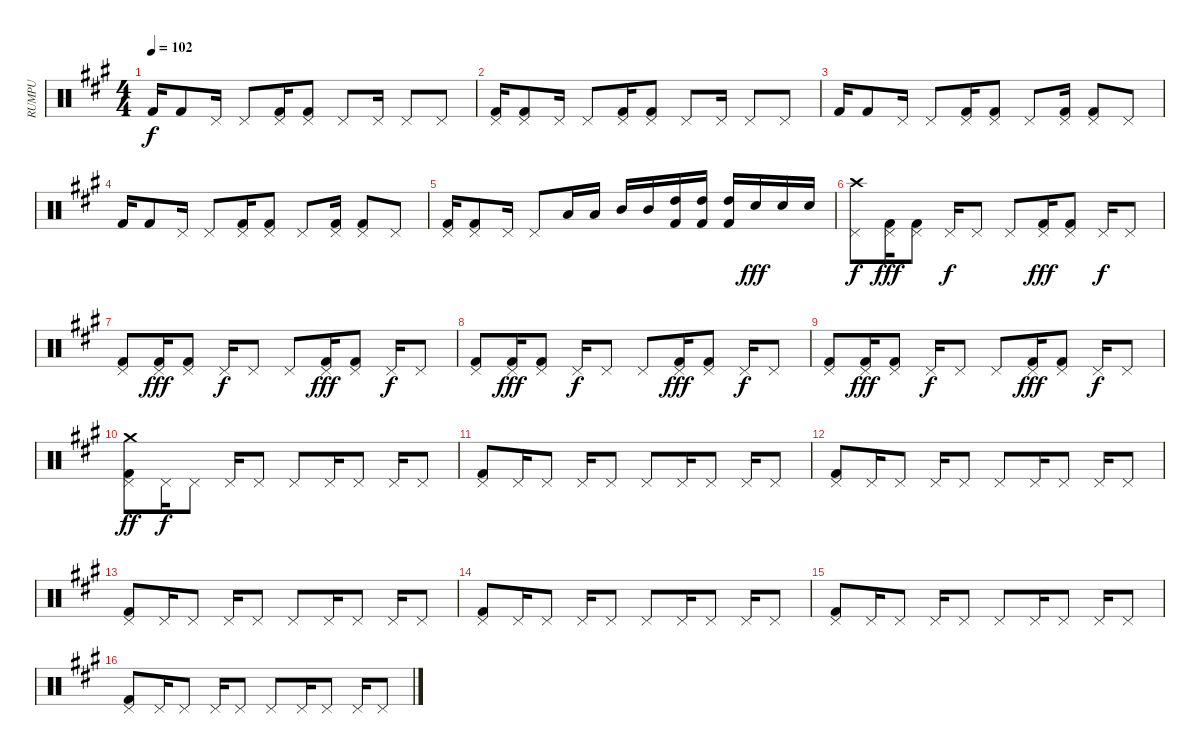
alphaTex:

\track ("RUMPU" "RUMPU") {instrument percussion}
\staff {score}
\articulation defaults
\ts (4 4)
\tempo 102
\clef neutral
\ks a "Kick (hit) 2".16{dy f} "Kick (hit) 2".8 "Pedal Hi-Hat (hit)".16 "Pedal Hi-Hat (hit)".8
("Kick (hit) 2" "Pedal Hi-Hat (hit)").16 ("Kick (hit) 2" "Pedal Hi-Hat (hit)").8 "Pedal Hi-Hat (hit)".8 "Pedal Hi-Hat (hit)".16 "Pedal Hi-Hat (hit)".8 "Pedal Hi-Hat (hit)".8 |
("Kick (hit) 2" "Pedal Hi-Hat (hit)").16 ("Kick (hit) 2" "Pedal Hi-Hat (hit)").8 "Pedal Hi-Hat (hit)".16 "Pedal Hi-Hat (hit)".8 ("Kick (hit) 2" "Pedal Hi-Hat (hit)").16 ("Kick (hit) 2" "Pedal Hi-Hat (hit)").8 "Pedal Hi-Hat (hit)".8 "Pedal Hi-Hat (hit)".16 "Pedal Hi-Hat (hit)".8 "Pedal Hi-Hat (hit)".8 |
"Kick (hit) 2".16 "Kick (hit) 2".8 "Pedal Hi-Hat (hit)".16 "Pedal Hi-Hat (hit)".8 ("Kick (hit) 2" "Pedal Hi-Hat (hit)").16 ("Kick (hit) 2" "Pedal Hi-Hat (hit)").8 "Pedal Hi-Hat (hit)".8 ("Kick (hit) 2" "Pedal Hi-Hat (hit)").16 ("Kick (hit) 2" "Pedal Hi-Hat (hit)").8 "Pedal Hi-Hat (hit)".8 |
"Kick (hit) 2".16 "Kick (hit) 2".8 "Pedal Hi-Hat (hit)".16 "Pedal Hi-Hat (hit)".8 ("Kick (hit) 2" "Pedal Hi-Hat (hit)").16 ("Kick (hit) 2" "Pedal Hi-Hat (hit)").8 "Pedal Hi-Hat (hit)".8 ("Kick (hit) 2" "Pedal Hi-Hat (hit)").16 ("Kick (hit) 2" "Pedal Hi-Hat (hit)").8 "Pedal Hi-Hat (hit)".8 |
("Kick (hit) 2" "Pedal Hi-Hat (hit)").16 ("Kick (hit) 2" "Pedal Hi-Hat (hit)").8 "Pedal Hi-Hat (hit)".16 "Pedal Hi-Hat (hit)".8 "Low Tom (hit)".16 "Low Tom (hit)".16 "Mid Tom (hit)".16 "Mid Tom (hit)".16 ("Kick (hit) 2" "High Tom (hit)").16 ("Kick (hit) 2" "High Tom (hit)").16 ("Kick (hit) 2" "High Tom (hit)").16 "Electric Snare (hit)".16{dy fff} "Electric Snare (hit)".16 "Electric Snare (hit)".16 |
("Crash high (hit)" "Pedal Hi-Hat (hit)").8{dy f} ("Kick (hit) 2" "Pedal Hi-Hat (hit)").16{dy fff} ("Kick (hit) 2" "Pedal Hi-Hat (hit)").8 "Pedal Hi-Hat (hit)".16{dy f} "Pedal Hi-Hat (hit)".8 "Pedal Hi-Hat (hit)".8 ("Kick (hit) 2" "Pedal Hi-Hat (hit)").16{dy fff} ("Kick (hit) 2" "Pedal Hi-Hat (hit)").8 "Pedal Hi-Hat (hit)".16{dy f} "Pedal Hi-Hat (hit)".8 |
("Kick (hit) 2" "Pedal Hi-Hat (hit)").8 ("Kick (hit) 2" "Pedal Hi-Hat (hit)").16{dy fff} ("Kick (hit) 2" "Pedal Hi-Hat (hit)").8 "Pedal Hi-Hat (hit)".16{dy f} "Pedal Hi-Hat (hit)".8 "Pedal Hi-Hat (hit)".8 ("Kick (hit) 2" "Pedal Hi-Hat (hit)").16{dy fff} ("Kick (hit) 2" "Pedal Hi-Hat (hit)").8 "Pedal Hi-Hat (hit)".16{dy f} "Pedal Hi-Hat (hit)".8 |
("Kick (hit) 2" "Pedal Hi-Hat (hit)").8 ("Kick (hit) 2" "Pedal Hi-Hat (hit)").16{dy fff} ("Kick (hit) 2" "Pedal Hi-Hat (hit)").8 "Pedal Hi-Hat (hit)".16{dy f} "Pedal Hi-Hat (hit)".8 "Pedal Hi-Hat (hit)".8 ("Kick (hit) 2" "Pedal Hi-Hat (hit)").16{dy fff} ("Kick (hit) 2" "Pedal Hi-Hat (hit)").8 "Pedal Hi-Hat (hit)".16{dy f} "Pedal Hi-Hat (hit)".8 |
("Kick (hit) 2" "Pedal Hi-Hat (hit)").8 ("Kick (hit) 2" "Pedal Hi-Hat (hit)").16{dy fff} ("Kick (hit) 2" "Pedal Hi-Hat (hit)").8 "Pedal Hi-Hat (hit)".16{dy f} "Pedal Hi-Hat (hit)".8 "Pedal Hi-Hat (hit)".8 ("Kick (hit) 2" "Pedal Hi-Hat (hit)").16{dy fff} ("Kick (hit) 2" "Pedal Hi-Hat (hit)").8 "Pedal Hi-Hat (hit)".16{dy f} "Pedal Hi-Hat (hit)".8 |
("Crash medium (hit)" "Kick (hit) 2" "Pedal Hi-Hat (hit)").8{dy ff} "Pedal Hi-Hat (hit)".16{dy f} "Pedal Hi-Hat (hit)".8 "Pedal Hi-Hat (hit)".16 "Pedal Hi-Hat (hit)".8 "Pedal Hi-Hat (hit)".8 "Pedal Hi-Hat (hit)".16 "Pedal Hi-Hat (hit)".8 "Pedal Hi-Hat (hit)".16 "Pedal Hi-Hat (hit)".8 |
("Kick (hit) 2" "Pedal Hi-Hat (hit)").8 "Pedal Hi-Hat (hit)".16 "Pedal Hi-Hat (hit)".8 "Pedal Hi-Hat (hit)".16 "Pedal Hi-Hat (hit)".8 "Pedal Hi-Hat (hit)".8 "Pedal Hi-Hat (hit)".16 "Pedal Hi-Hat (hit)".8 "Pedal Hi-Hat (hit)".16 "Pedal Hi-Hat (hit)".8 |
("Kick (hit) 2" "Pedal Hi-Hat (hit)").8 "Pedal Hi-Hat (hit)".16 "Pedal Hi-Hat (hit)".8 "Pedal Hi-Hat (hit)".16 "Pedal Hi-Hat (hit)".8 "Pedal Hi-Hat (hit)".8 "Pedal Hi-Hat (hit)".16 "Pedal Hi-Hat (hit)".8 "Pedal Hi-Hat (hit)".16 "Pedal Hi-Hat (hit)".8 |
("Kick (hit) 2" "Pedal Hi-Hat (hit)").8 "Pedal Hi-Hat (hit)".16 "Pedal Hi-Hat (hit)".8 "Pedal Hi-Hat (hit)".16 "Pedal Hi-Hat (hit)".8 "Pedal Hi-Hat (hit)".8 "Pedal Hi-Hat (hit)".16 "Pedal Hi-Hat (hit)".8 "Pedal Hi-Hat (hit)".16 "Pedal Hi-Hat (hit)".8 |
("Kick (hit) 2" "Pedal Hi-Hat (hit)").8 "Pedal Hi-Hat (hit)".16 "Pedal Hi-Hat (hit)".8 "Pedal Hi-Hat (hit)".16 "Pedal Hi-Hat (hit)".8 "Pedal Hi-Hat (hit)".8 "Pedal Hi-Hat (hit)".16 "Pedal Hi-Hat (hit)".8 "Pedal Hi-Hat (hit)".16 "Pedal Hi-Hat (hit)".8 |
("Kick (hit) 2" "Pedal Hi-Hat (hit)").8 "Pedal Hi-Hat (hit)".16 "Pedal Hi-Hat (hit)".8 "Pedal Hi-Hat (hit)".16 "Pedal Hi-Hat (hit)".8 "Pedal Hi-Hat (hit)".8 "Pedal Hi-Hat (hit)".16 "Pedal Hi-Hat (hit)".8 "Pedal Hi-Hat (hit)".16 "Pedal Hi-Hat (hit)".8 |
("Kick (hit) 2" "Pedal Hi-Hat (hit)").8 "Pedal Hi-Hat (hit)".16 "Pedal Hi-Hat (hit)".8 "Pedal Hi-Hat (hit)".16 "Pedal Hi-Hat (hit)".8 "Pedal Hi-Hat (hit)".8 "Pedal Hi-Hat (hit)".16 "Pedal Hi-Hat (hit)".8 "Pedal Hi-Hat (hit)".16 "Pedal Hi-Hat (hit)".8
